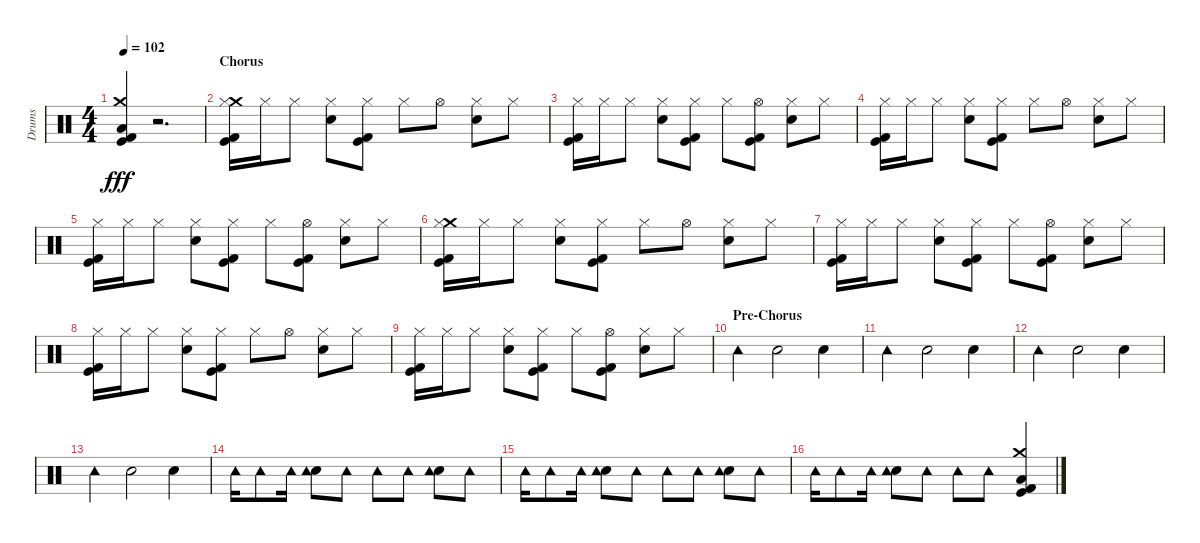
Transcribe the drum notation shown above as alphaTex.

\track ("Drums" "Drums") {instrument percussion}
\staff {score}
\articulation defaults
\ts (4 4)
\tempo 102
\clef neutral
\ks c
("Kick (hit) 2" "Kick (hit)" "Crash medium (hit)" "Low Tom (hit)").4{dy fff} r.2{d} |
\section ("" "Chorus")
("Crash medium (hit)" "Kick (hit) 2" "Kick (hit)" "Hi-Hat (closed)").16 "Hi-Hat (closed)".16 "Hi-Hat (closed)".8 ("Hand Clap (hit)" "Hi-Hat (closed)").8 ("Kick (hit) 2" "Kick (hit)" "Hi-Hat (closed)").8 "Hi-Hat (closed)".8 "Hi-Hat (open)".8 ("Hand Clap (hit)" "Hi-Hat (closed)").8 "Hi-Hat (closed)".8 |
("Kick (hit) 2" "Kick (hit)" "Hi-Hat (closed)").16 "Hi-Hat (closed)".16 "Hi-Hat (closed)".8 ("Hand Clap (hit)" "Hi-Hat (closed)").8 ("Kick (hit) 2" "Kick (hit)" "Hi-Hat (closed)").8 "Hi-Hat (closed)".8 ("Kick (hit) 2" "Kick (hit)" "Hi-Hat (open)").8 ("Hand Clap (hit)" "Hi-Hat (closed)").8 "Hi-Hat (closed)".8 |
("Kick (hit) 2" "Kick (hit)" "Hi-Hat (closed)").16 "Hi-Hat (closed)".16 "Hi-Hat (closed)".8 ("Hand Clap (hit)" "Hi-Hat (closed)").8 ("Kick (hit) 2" "Kick (hit)" "Hi-Hat (closed)").8 "Hi-Hat (closed)".8 "Hi-Hat (open)".8 ("Hand Clap (hit)" "Hi-Hat (closed)").8 "Hi-Hat (closed)".8 |
("Kick (hit) 2" "Kick (hit)" "Hi-Hat (closed)").16 "Hi-Hat (closed)".16 "Hi-Hat (closed)".8 ("Hand Clap (hit)" "Hi-Hat (closed)").8 ("Kick (hit) 2" "Kick (hit)" "Hi-Hat (closed)").8 "Hi-Hat (closed)".8 ("Kick (hit) 2" "Kick (hit)" "Hi-Hat (open)").8 ("Hand Clap (hit)" "Hi-Hat (closed)").8 "Hi-Hat (closed)".8 |
("Crash medium (hit)" "Kick (hit) 2" "Kick (hit)" "Hi-Hat (closed)").16 "Hi-Hat (closed)".16 "Hi-Hat (closed)".8 ("Hand Clap (hit)" "Hi-Hat (closed)").8 ("Kick (hit) 2" "Kick (hit)" "Hi-Hat (closed)").8 "Hi-Hat (closed)".8 "Hi-Hat (open)".8 ("Hand Clap (hit)" "Hi-Hat (closed)").8 "Hi-Hat (closed)".8 |
("Kick (hit) 2" "Kick (hit)" "Hi-Hat (closed)").16 "Hi-Hat (closed)".16 "Hi-Hat (closed)".8 ("Hand Clap (hit)" "Hi-Hat (closed)").8 ("Kick (hit) 2" "Kick (hit)" "Hi-Hat (closed)").8 "Hi-Hat (closed)".8 ("Kick (hit) 2" "Kick (hit)" "Hi-Hat (open)").8 ("Hand Clap (hit)" "Hi-Hat (closed)").8 "Hi-Hat (closed)".8 |
("Kick (hit) 2" "Kick (hit)" "Hi-Hat (closed)").16 "Hi-Hat (closed)".16 "Hi-Hat (closed)".8 ("Hand Clap (hit)" "Hi-Hat (closed)").8 ("Kick (hit) 2" "Kick (hit)" "Hi-Hat (closed)").8 "Hi-Hat (closed)".8 "Hi-Hat (open)".8 ("Hand Clap (hit)" "Hi-Hat (closed)").8 "Hi-Hat (closed)".8 |
("Kick (hit) 2" "Kick (hit)" "Hi-Hat (closed)").16 "Hi-Hat (closed)".16 "Hi-Hat (closed)".8 ("Hand Clap (hit)" "Hi-Hat (closed)").8 ("Kick (hit) 2" "Kick (hit)" "Hi-Hat (closed)").8 "Hi-Hat (closed)".8 ("Kick (hit) 2" "Kick (hit)" "Hi-Hat (open)").8 ("Hand Clap (hit)" "Hi-Hat (closed)").8 "Hi-Hat (closed)".8 |
\section ("" "Pre-Chorus")
"Tambourine (hit)".4 "Hand Clap (hit)".2 "Hand Clap (hit)".4 |
"Tambourine (hit)".4 "Hand Clap (hit)".2 "Hand Clap (hit)".4 |
"Tambourine (hit)".4 "Hand Clap (hit)".2 "Hand Clap (hit)".4 |
"Tambourine (hit)".4 "Hand Clap (hit)".2 "Hand Clap (hit)".4 |
"Tambourine (hit)".16 "Tambourine (hit)".8 "Tambourine (hit)".16 ("Hand Clap (hit)" "Tambourine (hit)").8 "Tambourine (hit)".8 "Tambourine (hit)".8 "Tambourine (hit)".8 ("Hand Clap (hit)" "Tambourine (hit)").8 "Tambourine (hit)".8 |
"Tambourine (hit)".16 "Tambourine (hit)".8 "Tambourine (hit)".16 ("Hand Clap (hit)" "Tambourine (hit)").8 "Tambourine (hit)".8 "Tambourine (hit)".8 "Tambourine (hit)".8 ("Hand Clap (hit)" "Tambourine (hit)").8 "Tambourine (hit)".8 |
"Tambourine (hit)".16 "Tambourine (hit)".8 "Tambourine (hit)".16 ("Hand Clap (hit)" "Tambourine (hit)").8 "Tambourine (hit)".8 "Tambourine (hit)".8 "Tambourine (hit)".8 ("Crash medium (hit)" "Low Tom (hit)" "Kick (hit) 2" "Kick (hit)").4
